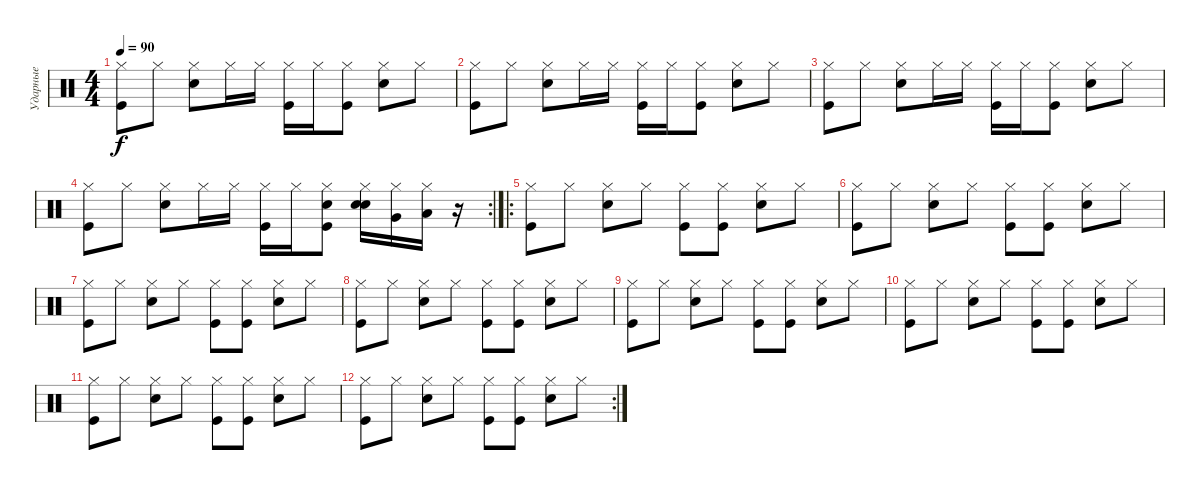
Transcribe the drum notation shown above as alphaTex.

\track ("Ударные" "Ударные") {instrument percussion}
\staff {score}
\articulation defaults
\ts (4 4)
\tempo 90
\clef neutral
\ks c
("Hi-Hat (closed)" "Kick (hit)").8{dy f} "Hi-Hat (closed)".8 ("Hi-Hat (closed)" "Snare (hit) 2").8 "Hi-Hat (closed)".16 "Hi-Hat (closed)".16 ("Hi-Hat (closed)" "Kick (hit)").16 "Hi-Hat (closed)".16 ("Hi-Hat (closed)" "Kick (hit)").8 ("Hi-Hat (closed)" "Snare (hit) 2").8 "Hi-Hat (closed)".8 |
("Hi-Hat (closed)" "Kick (hit)").8 "Hi-Hat (closed)".8 ("Hi-Hat (closed)" "Snare (hit) 2").8 "Hi-Hat (closed)".16 "Hi-Hat (closed)".16 ("Hi-Hat (closed)" "Kick (hit)").16 "Hi-Hat (closed)".16 ("Hi-Hat (closed)" "Kick (hit)").8 ("Hi-Hat (closed)" "Snare (hit) 2").8 "Hi-Hat (closed)".8 |
("Hi-Hat (closed)" "Kick (hit)").8 "Hi-Hat (closed)".8 ("Hi-Hat (closed)" "Snare (hit) 2").8 "Hi-Hat (closed)".16 "Hi-Hat (closed)".16 ("Hi-Hat (closed)" "Kick (hit)").16 "Hi-Hat (closed)".16 ("Hi-Hat (closed)" "Kick (hit)").8 ("Hi-Hat (closed)" "Snare (hit) 2").8 "Hi-Hat (closed)".8 |
\rc 2
("Hi-Hat (closed)" "Kick (hit)").8 "Hi-Hat (closed)".8 ("Hi-Hat (closed)" "Snare (hit) 2").8 "Hi-Hat (closed)".16 "Hi-Hat (closed)".16 ("Hi-Hat (closed)" "Kick (hit)").16 "Hi-Hat (closed)".16 ("Hi-Hat (closed)" "Kick (hit)" "Electric Snare (hit)").8 ("Hi-Hat (closed)" "Snare (hit) 2" "Electric Snare (hit)").16 ("Hi-Hat (closed)" "Very Low Tom (hit)").16 ("Hi-Hat (closed)" "Low Floor Tom (hit)").16 r.16 |
\ro
("Hi-Hat (closed)" "Kick (hit)").8 "Hi-Hat (closed)".8 ("Hi-Hat (closed)" "Snare (hit) 2").8 "Hi-Hat (closed)".8 ("Hi-Hat (closed)" "Kick (hit)").8 ("Hi-Hat (closed)" "Kick (hit)").8 ("Hi-Hat (closed)" "Snare (hit) 2").8 "Hi-Hat (closed)".8 |
("Hi-Hat (closed)" "Kick (hit)").8 "Hi-Hat (closed)".8 ("Hi-Hat (closed)" "Snare (hit) 2").8 "Hi-Hat (closed)".8 ("Hi-Hat (closed)" "Kick (hit)").8 ("Hi-Hat (closed)" "Kick (hit)").8 ("Hi-Hat (closed)" "Snare (hit) 2").8 "Hi-Hat (closed)".8 |
("Hi-Hat (closed)" "Kick (hit)").8 "Hi-Hat (closed)".8 ("Hi-Hat (closed)" "Snare (hit) 2").8 "Hi-Hat (closed)".8 ("Hi-Hat (closed)" "Kick (hit)").8 ("Hi-Hat (closed)" "Kick (hit)").8 ("Hi-Hat (closed)" "Snare (hit) 2").8 "Hi-Hat (closed)".8 |
("Hi-Hat (closed)" "Kick (hit)").8 "Hi-Hat (closed)".8 ("Hi-Hat (closed)" "Snare (hit) 2").8 "Hi-Hat (closed)".8 ("Hi-Hat (closed)" "Kick (hit)").8 ("Hi-Hat (closed)" "Kick (hit)").8 ("Hi-Hat (closed)" "Snare (hit) 2").8 "Hi-Hat (closed)".8 |
("Hi-Hat (closed)" "Kick (hit)").8 "Hi-Hat (closed)".8 ("Hi-Hat (closed)" "Snare (hit) 2").8 "Hi-Hat (closed)".8 ("Hi-Hat (closed)" "Kick (hit)").8 ("Hi-Hat (closed)" "Kick (hit)").8 ("Hi-Hat (closed)" "Snare (hit) 2").8 "Hi-Hat (closed)".8 |
("Hi-Hat (closed)" "Kick (hit)").8 "Hi-Hat (closed)".8 ("Hi-Hat (closed)" "Snare (hit) 2").8 "Hi-Hat (closed)".8 ("Hi-Hat (closed)" "Kick (hit)").8 ("Hi-Hat (closed)" "Kick (hit)").8 ("Hi-Hat (closed)" "Snare (hit) 2").8 "Hi-Hat (closed)".8 |
("Hi-Hat (closed)" "Kick (hit)").8 "Hi-Hat (closed)".8 ("Hi-Hat (closed)" "Snare (hit) 2").8 "Hi-Hat (closed)".8 ("Hi-Hat (closed)" "Kick (hit)").8 ("Hi-Hat (closed)" "Kick (hit)").8 ("Hi-Hat (closed)" "Snare (hit) 2").8 "Hi-Hat (closed)".8 |
\rc 2
("Hi-Hat (closed)" "Kick (hit)").8 "Hi-Hat (closed)".8 ("Hi-Hat (closed)" "Snare (hit) 2").8 "Hi-Hat (closed)".8 ("Hi-Hat (closed)" "Kick (hit)").8 ("Hi-Hat (closed)" "Kick (hit)").8 ("Hi-Hat (closed)" "Snare (hit) 2").8 "Hi-Hat (closed)".8
